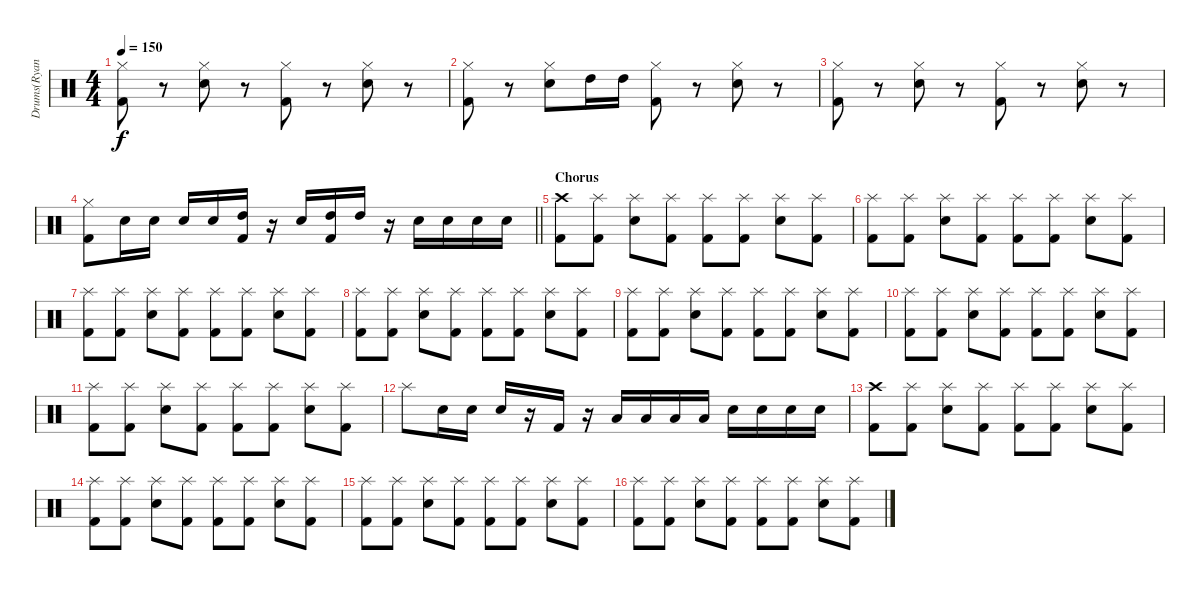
\track ("Drums(Ryan)" "Drums(Ryan") {instrument percussion}
\staff {score}
\articulation defaults
\ts (4 4)
\tempo 150
\clef neutral
\ks c
("Hi-Hat (closed)" "Kick (hit) 2").8{dy f} r.8 ("Hi-Hat (closed)" "Electric Snare (hit)").8 r.8 ("Hi-Hat (closed)" "Kick (hit) 2").8 r.8 ("Hi-Hat (closed)" "Electric Snare (hit)").8 r.8 |
("Hi-Hat (closed)" "Kick (hit) 2").8 r.8 ("Hi-Hat (closed)" "Electric Snare (hit)").8 "High Tom (hit)".16 "High Tom (hit)".16 ("Hi-Hat (closed)" "Kick (hit) 2").8 r.8 ("Hi-Hat (closed)" "Electric Snare (hit)").8 r.8 |
("Hi-Hat (closed)" "Kick (hit) 2").8 r.8 ("Hi-Hat (closed)" "Electric Snare (hit)").8 r.8 ("Hi-Hat (closed)" "Kick (hit) 2").8 r.8 ("Hi-Hat (closed)" "Electric Snare (hit)").8 r.8 |
\barLineRight lightlight
("Hi-Hat (closed)" "Kick (hit) 2").8 "Electric Snare (hit)".16 "Electric Snare (hit)".16 "Electric Snare (hit)".16 "Electric Snare (hit)".16 ("High Tom (hit)" "Kick (hit) 2").16 r.16 "Electric Snare (hit)".16 ("High Tom (hit)" "Kick (hit) 2").16 "High Tom (hit)".16 r.16 "Electric Snare (hit)".16 "Electric Snare (hit)".16 "Electric Snare (hit)".16 "Electric Snare (hit)".16 |
\section ("" "Chorus")
("Crash high (hit)" "Kick (hit) 2").8 ("Splash (hit)" "Kick (hit) 2").8 ("Splash (hit)" "Electric Snare (hit)").8 ("Splash (hit)" "Kick (hit) 2").8 ("Splash (hit)" "Kick (hit) 2").8 ("Splash (hit)" "Kick (hit) 2").8 ("Splash (hit)" "Electric Snare (hit)").8 ("Splash (hit)" "Kick (hit) 2").8 |
("Splash (hit)" "Kick (hit) 2").8 ("Splash (hit)" "Kick (hit) 2").8 ("Splash (hit)" "Electric Snare (hit)").8 ("Splash (hit)" "Kick (hit) 2").8 ("Splash (hit)" "Kick (hit) 2").8 ("Splash (hit)" "Kick (hit) 2").8 ("Splash (hit)" "Electric Snare (hit)").8 ("Splash (hit)" "Kick (hit) 2").8 |
("Splash (hit)" "Kick (hit) 2").8 ("Splash (hit)" "Kick (hit) 2").8 ("Splash (hit)" "Electric Snare (hit)").8 ("Splash (hit)" "Kick (hit) 2").8 ("Splash (hit)" "Kick (hit) 2").8 ("Splash (hit)" "Kick (hit) 2").8 ("Splash (hit)" "Electric Snare (hit)").8 ("Splash (hit)" "Kick (hit) 2").8 |
("Splash (hit)" "Kick (hit) 2").8 ("Splash (hit)" "Kick (hit) 2").8 ("Splash (hit)" "Electric Snare (hit)").8 ("Splash (hit)" "Kick (hit) 2").8 ("Splash (hit)" "Kick (hit) 2").8 ("Splash (hit)" "Kick (hit) 2").8 ("Splash (hit)" "Electric Snare (hit)").8 ("Splash (hit)" "Kick (hit) 2").8 |
("Splash (hit)" "Kick (hit) 2").8 ("Splash (hit)" "Kick (hit) 2").8 ("Splash (hit)" "Electric Snare (hit)").8 ("Splash (hit)" "Kick (hit) 2").8 ("Splash (hit)" "Kick (hit) 2").8 ("Splash (hit)" "Kick (hit) 2").8 ("Splash (hit)" "Electric Snare (hit)").8 ("Splash (hit)" "Kick (hit) 2").8 |
("Splash (hit)" "Kick (hit) 2").8 ("Splash (hit)" "Kick (hit) 2").8 ("Splash (hit)" "Electric Snare (hit)").8 ("Splash (hit)" "Kick (hit) 2").8 ("Splash (hit)" "Kick (hit) 2").8 ("Splash (hit)" "Kick (hit) 2").8 ("Splash (hit)" "Electric Snare (hit)").8 ("Splash (hit)" "Kick (hit) 2").8 |
("Splash (hit)" "Kick (hit) 2").8 ("Splash (hit)" "Kick (hit) 2").8 ("Splash (hit)" "Electric Snare (hit)").8 ("Splash (hit)" "Kick (hit) 2").8 ("Splash (hit)" "Kick (hit) 2").8 ("Splash (hit)" "Kick (hit) 2").8 ("Splash (hit)" "Electric Snare (hit)").8 ("Splash (hit)" "Kick (hit) 2").8 |
"Splash (hit)".8 "Electric Snare (hit)".16 "Electric Snare (hit)".16 "Electric Snare (hit)".16 r.16 "Kick (hit) 2".16 r.16 "Low Tom (hit)".16 "Low Tom (hit)".16 "Low Tom (hit)".16 "Low Tom (hit)".16 "Electric Snare (hit)".16 "Electric Snare (hit)".16 "Electric Snare (hit)".16 "Electric Snare (hit)".16 |
("Crash high (hit)" "Kick (hit) 2").8 ("Splash (hit)" "Kick (hit) 2").8 ("Splash (hit)" "Electric Snare (hit)").8 ("Splash (hit)" "Kick (hit) 2").8 ("Splash (hit)" "Kick (hit) 2").8 ("Splash (hit)" "Kick (hit) 2").8 ("Splash (hit)" "Electric Snare (hit)").8 ("Splash (hit)" "Kick (hit) 2").8 |
("Splash (hit)" "Kick (hit) 2").8 ("Splash (hit)" "Kick (hit) 2").8 ("Splash (hit)" "Electric Snare (hit)").8 ("Splash (hit)" "Kick (hit) 2").8 ("Splash (hit)" "Kick (hit) 2").8 ("Splash (hit)" "Kick (hit) 2").8 ("Splash (hit)" "Electric Snare (hit)").8 ("Splash (hit)" "Kick (hit) 2").8 |
("Splash (hit)" "Kick (hit) 2").8 ("Splash (hit)" "Kick (hit) 2").8 ("Splash (hit)" "Electric Snare (hit)").8 ("Splash (hit)" "Kick (hit) 2").8 ("Splash (hit)" "Kick (hit) 2").8 ("Splash (hit)" "Kick (hit) 2").8 ("Splash (hit)" "Electric Snare (hit)").8 ("Splash (hit)" "Kick (hit) 2").8 |
("Splash (hit)" "Kick (hit) 2").8 ("Splash (hit)" "Kick (hit) 2").8 ("Splash (hit)" "Electric Snare (hit)").8 ("Splash (hit)" "Kick (hit) 2").8 ("Splash (hit)" "Kick (hit) 2").8 ("Splash (hit)" "Kick (hit) 2").8 ("Splash (hit)" "Electric Snare (hit)").8 ("Splash (hit)" "Kick (hit) 2").8
